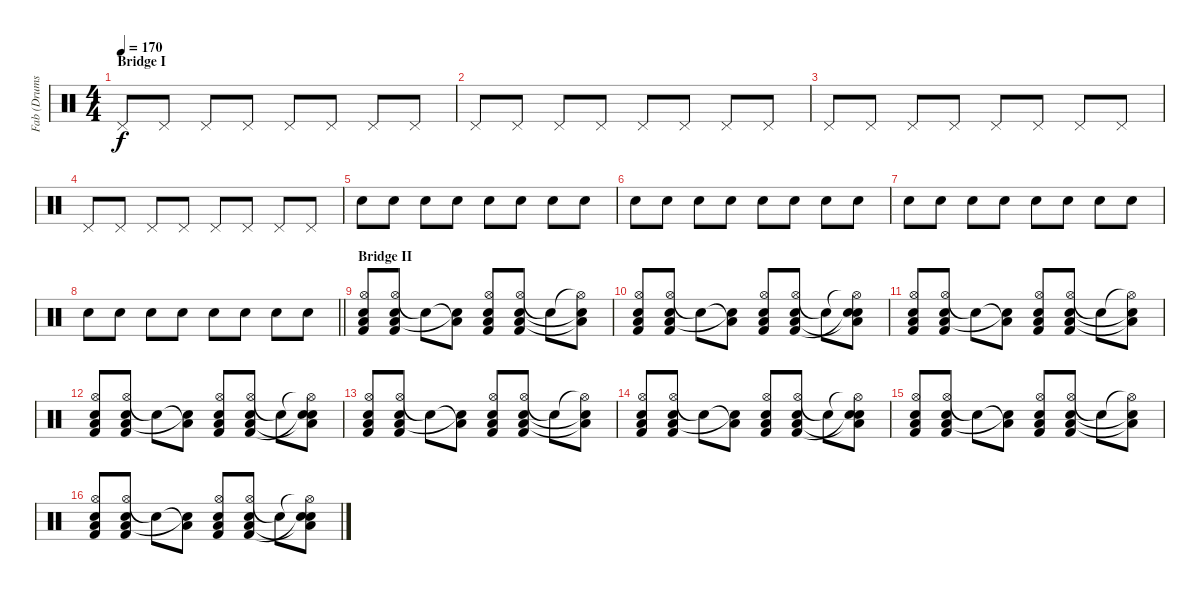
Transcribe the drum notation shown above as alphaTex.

\track ("Fab (Drums)" "Fab (Drums") {instrument percussion}
\staff {score}
\articulation defaults
\ts (4 4)
\section ("" "Bridge I")
\tempo 170
\clef neutral
\ks c "Pedal Hi-Hat (hit)".8{dy f} "Pedal Hi-Hat (hit)".8 "Pedal Hi-Hat (hit)".8 "Pedal Hi-Hat (hit)".8 "Pedal Hi-Hat (hit)".8 "Pedal Hi-Hat (hit)".8 "Pedal Hi-Hat (hit)".8 "Pedal Hi-Hat (hit)".8
|
"Pedal Hi-Hat (hit)".8 "Pedal Hi-Hat (hit)".8 "Pedal Hi-Hat (hit)".8 "Pedal Hi-Hat (hit)".8 "Pedal Hi-Hat (hit)".8 "Pedal Hi-Hat (hit)".8 "Pedal Hi-Hat (hit)".8 "Pedal Hi-Hat (hit)".8 |
"Pedal Hi-Hat (hit)".8 "Pedal Hi-Hat (hit)".8 "Pedal Hi-Hat (hit)".8 "Pedal Hi-Hat (hit)".8 "Pedal Hi-Hat (hit)".8 "Pedal Hi-Hat (hit)".8 "Pedal Hi-Hat (hit)".8 "Pedal Hi-Hat (hit)".8 |
"Pedal Hi-Hat (hit)".8 "Pedal Hi-Hat (hit)".8 "Pedal Hi-Hat (hit)".8 "Pedal Hi-Hat (hit)".8 "Pedal Hi-Hat (hit)".8 "Pedal Hi-Hat (hit)".8 "Pedal Hi-Hat (hit)".8 "Pedal Hi-Hat (hit)".8 |
"Electric Snare (hit)".8 "Electric Snare (hit)".8 "Electric Snare (hit)".8 "Electric Snare (hit)".8 "Electric Snare (hit)".8 "Electric Snare (hit)".8 "Electric Snare (hit)".8 "Electric Snare (hit)".8 |
"Electric Snare (hit)".8 "Electric Snare (hit)".8 "Electric Snare (hit)".8 "Electric Snare (hit)".8 "Electric Snare (hit)".8 "Electric Snare (hit)".8 "Electric Snare (hit)".8 "Electric Snare (hit)".8 |
"Electric Snare (hit)".8 "Electric Snare (hit)".8 "Electric Snare (hit)".8 "Electric Snare (hit)".8 "Electric Snare (hit)".8 "Electric Snare (hit)".8 "Electric Snare (hit)".8 "Electric Snare (hit)".8 |
\barLineRight lightlight "Electric Snare (hit)".8 "Electric Snare (hit)".8 "Electric Snare (hit)".8 "Electric Snare (hit)".8 "Electric Snare (hit)".8 "Electric Snare (hit)".8 "Electric Snare (hit)".8 "Electric Snare (hit)".8
|
\section ("" "Bridge II")
("Hi-Hat (open)" "Low Floor Tom (hit)" "Electric Snare (hit)" "Kick (hit) 2").8 ("Hi-Hat (open)" "Low Floor Tom (hit)" "Electric Snare (hit)" "Kick (hit) 2").8 "Snare (hit)"{t}.8 ("Low Floor Tom (hit)"{t} "Snare (hit)"{t}).8 ("Hi-Hat (open)" "Low Floor Tom (hit)" "Electric Snare (hit)" "Kick (hit) 2").8 ("Hi-Hat (open)" "Low Floor Tom (hit)" "Electric Snare (hit)" "Kick (hit) 2").8 "Snare (hit)"{t}.8 ("Hi-Hat (open)"{t} "Low Floor Tom (hit)"{t} "Snare (hit)"{t}).8 |
("Hi-Hat (open)" "Low Floor Tom (hit)" "Electric Snare (hit)" "Kick (hit) 2").8 ("Hi-Hat (open)" "Low Floor Tom (hit)" "Electric Snare (hit)" "Kick (hit) 2").8 "Snare (hit)"{t}.8 ("Low Floor Tom (hit)"{t} "Snare (hit)"{t}).8 ("Hi-Hat (open)" "Low Floor Tom (hit)" "Electric Snare (hit)" "Kick (hit) 2").8 ("Hi-Hat (open)" "Low Floor Tom (hit)" "Electric Snare (hit)" "Kick (hit) 2").8 "Snare (hit)"{t}.8 ("Hi-Hat (open)"{t} "Low Floor Tom (hit)"{t} "Electric Snare (hit)" "Snare (hit)"{t}).8 |
("Hi-Hat (open)" "Low Floor Tom (hit)" "Electric Snare (hit)" "Kick (hit) 2").8 ("Hi-Hat (open)" "Low Floor Tom (hit)" "Electric Snare (hit)" "Kick (hit) 2").8 "Snare (hit)"{t}.8 ("Low Floor Tom (hit)"{t} "Snare (hit)"{t}).8 ("Hi-Hat (open)" "Low Floor Tom (hit)" "Electric Snare (hit)" "Kick (hit) 2").8 ("Hi-Hat (open)" "Low Floor Tom (hit)" "Electric Snare (hit)" "Kick (hit) 2").8 "Snare (hit)"{t}.8 ("Hi-Hat (open)"{t} "Low Floor Tom (hit)"{t} "Snare (hit)"{t}).8 |
("Hi-Hat (open)" "Low Floor Tom (hit)" "Electric Snare (hit)" "Kick (hit) 2").8 ("Hi-Hat (open)" "Low Floor Tom (hit)" "Electric Snare (hit)" "Kick (hit) 2").8 "Snare (hit)"{t}.8 ("Low Floor Tom (hit)"{t} "Snare (hit)"{t}).8 ("Hi-Hat (open)" "Low Floor Tom (hit)" "Electric Snare (hit)" "Kick (hit) 2").8 ("Hi-Hat (open)" "Low Floor Tom (hit)" "Electric Snare (hit)" "Kick (hit) 2").8 "Snare (hit)"{t}.8 ("Hi-Hat (open)"{t} "Low Floor Tom (hit)"{t} "Electric Snare (hit)" "Snare (hit)"{t}).8 |
("Hi-Hat (open)" "Low Floor Tom (hit)" "Electric Snare (hit)" "Kick (hit) 2").8 ("Hi-Hat (open)" "Low Floor Tom (hit)" "Electric Snare (hit)" "Kick (hit) 2").8 "Snare (hit)"{t}.8 ("Low Floor Tom (hit)"{t} "Snare (hit)"{t}).8 ("Hi-Hat (open)" "Low Floor Tom (hit)" "Electric Snare (hit)" "Kick (hit) 2").8 ("Hi-Hat (open)" "Low Floor Tom (hit)" "Electric Snare (hit)" "Kick (hit) 2").8 "Snare (hit)"{t}.8 ("Hi-Hat (open)"{t} "Low Floor Tom (hit)"{t} "Snare (hit)"{t}).8 |
("Hi-Hat (open)" "Low Floor Tom (hit)" "Electric Snare (hit)" "Kick (hit) 2").8 ("Hi-Hat (open)" "Low Floor Tom (hit)" "Electric Snare (hit)" "Kick (hit) 2").8 "Snare (hit)"{t}.8 ("Low Floor Tom (hit)"{t} "Snare (hit)"{t}).8 ("Hi-Hat (open)" "Low Floor Tom (hit)" "Electric Snare (hit)" "Kick (hit) 2").8 ("Hi-Hat (open)" "Low Floor Tom (hit)" "Electric Snare (hit)" "Kick (hit) 2").8 "Snare (hit)"{t}.8 ("Hi-Hat (open)"{t} "Low Floor Tom (hit)"{t} "Electric Snare (hit)" "Snare (hit)"{t}).8 |
("Hi-Hat (open)" "Low Floor Tom (hit)" "Electric Snare (hit)" "Kick (hit) 2").8 ("Hi-Hat (open)" "Low Floor Tom (hit)" "Electric Snare (hit)" "Kick (hit) 2").8 "Snare (hit)"{t}.8 ("Low Floor Tom (hit)"{t} "Snare (hit)"{t}).8 ("Hi-Hat (open)" "Low Floor Tom (hit)" "Electric Snare (hit)" "Kick (hit) 2").8 ("Hi-Hat (open)" "Low Floor Tom (hit)" "Electric Snare (hit)" "Kick (hit) 2").8 "Snare (hit)"{t}.8 ("Hi-Hat (open)"{t} "Low Floor Tom (hit)"{t} "Snare (hit)"{t}).8 |
("Hi-Hat (open)" "Low Floor Tom (hit)" "Electric Snare (hit)" "Kick (hit) 2").8 ("Hi-Hat (open)" "Low Floor Tom (hit)" "Electric Snare (hit)" "Kick (hit) 2").8 "Snare (hit)"{t}.8 ("Low Floor Tom (hit)"{t} "Snare (hit)"{t}).8 ("Hi-Hat (open)" "Low Floor Tom (hit)" "Electric Snare (hit)" "Kick (hit) 2").8 ("Hi-Hat (open)" "Low Floor Tom (hit)" "Electric Snare (hit)" "Kick (hit) 2").8 "Snare (hit)"{t}.8 ("Hi-Hat (open)"{t} "Low Floor Tom (hit)"{t} "Electric Snare (hit)" "Snare (hit)"{t}).8
